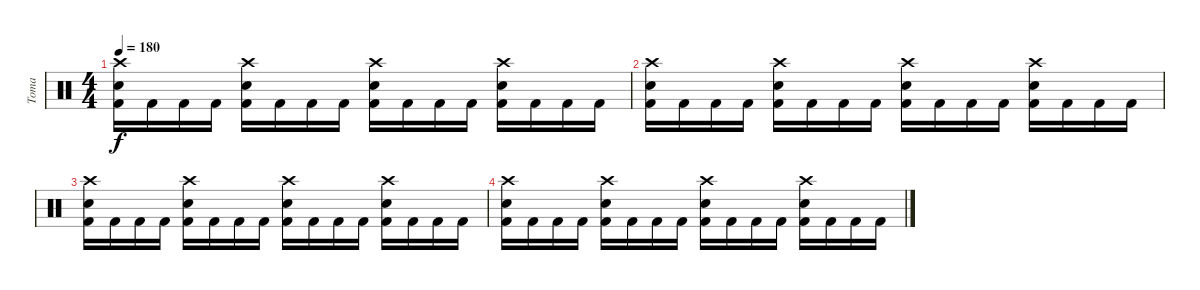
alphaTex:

\track ("Toma" "Toma") {instrument percussion}
\staff {score}
\articulation defaults
\ts (4 4)
\tempo 180
\clef neutral
\ks c
("Crash high (hit)" "Electric Snare (hit)" "Kick (hit) 2").16{dy f} "Kick (hit) 2".16 "Kick (hit) 2".16 "Kick (hit) 2".16 ("Crash high (hit)" "Electric Snare (hit)" "Kick (hit) 2").16 "Kick (hit) 2".16 "Kick (hit) 2".16 "Kick (hit) 2".16 ("Crash high (hit)" "Electric Snare (hit)" "Kick (hit) 2").16 "Kick (hit) 2".16 "Kick (hit) 2".16 "Kick (hit) 2".16 ("Crash high (hit)" "Electric Snare (hit)" "Kick (hit) 2").16 "Kick (hit) 2".16 "Kick (hit) 2".16 "Kick (hit) 2".16 |
("Crash high (hit)" "Electric Snare (hit)" "Kick (hit) 2").16 "Kick (hit) 2".16 "Kick (hit) 2".16 "Kick (hit) 2".16 ("Crash high (hit)" "Electric Snare (hit)" "Kick (hit) 2").16 "Kick (hit) 2".16 "Kick (hit) 2".16 "Kick (hit) 2".16 ("Crash high (hit)" "Electric Snare (hit)" "Kick (hit) 2").16 "Kick (hit) 2".16 "Kick (hit) 2".16 "Kick (hit) 2".16 ("Crash high (hit)" "Electric Snare (hit)" "Kick (hit) 2").16 "Kick (hit) 2".16 "Kick (hit) 2".16 "Kick (hit) 2".16 |
("Crash high (hit)" "Electric Snare (hit)" "Kick (hit) 2").16 "Kick (hit) 2".16 "Kick (hit) 2".16 "Kick (hit) 2".16 ("Crash high (hit)" "Electric Snare (hit)" "Kick (hit) 2").16 "Kick (hit) 2".16 "Kick (hit) 2".16 "Kick (hit) 2".16 ("Crash high (hit)" "Electric Snare (hit)" "Kick (hit) 2").16 "Kick (hit) 2".16 "Kick (hit) 2".16 "Kick (hit) 2".16 ("Crash high (hit)" "Electric Snare (hit)" "Kick (hit) 2").16 "Kick (hit) 2".16 "Kick (hit) 2".16 "Kick (hit) 2".16 |
("Crash high (hit)" "Electric Snare (hit)" "Kick (hit) 2").16 "Kick (hit) 2".16 "Kick (hit) 2".16 "Kick (hit) 2".16 ("Crash high (hit)" "Electric Snare (hit)" "Kick (hit) 2").16 "Kick (hit) 2".16 "Kick (hit) 2".16 "Kick (hit) 2".16 ("Crash high (hit)" "Electric Snare (hit)" "Kick (hit) 2").16 "Kick (hit) 2".16 "Kick (hit) 2".16 "Kick (hit) 2".16 ("Crash high (hit)" "Electric Snare (hit)" "Kick (hit) 2").16 "Kick (hit) 2".16 "Kick (hit) 2".16 "Kick (hit) 2".16
